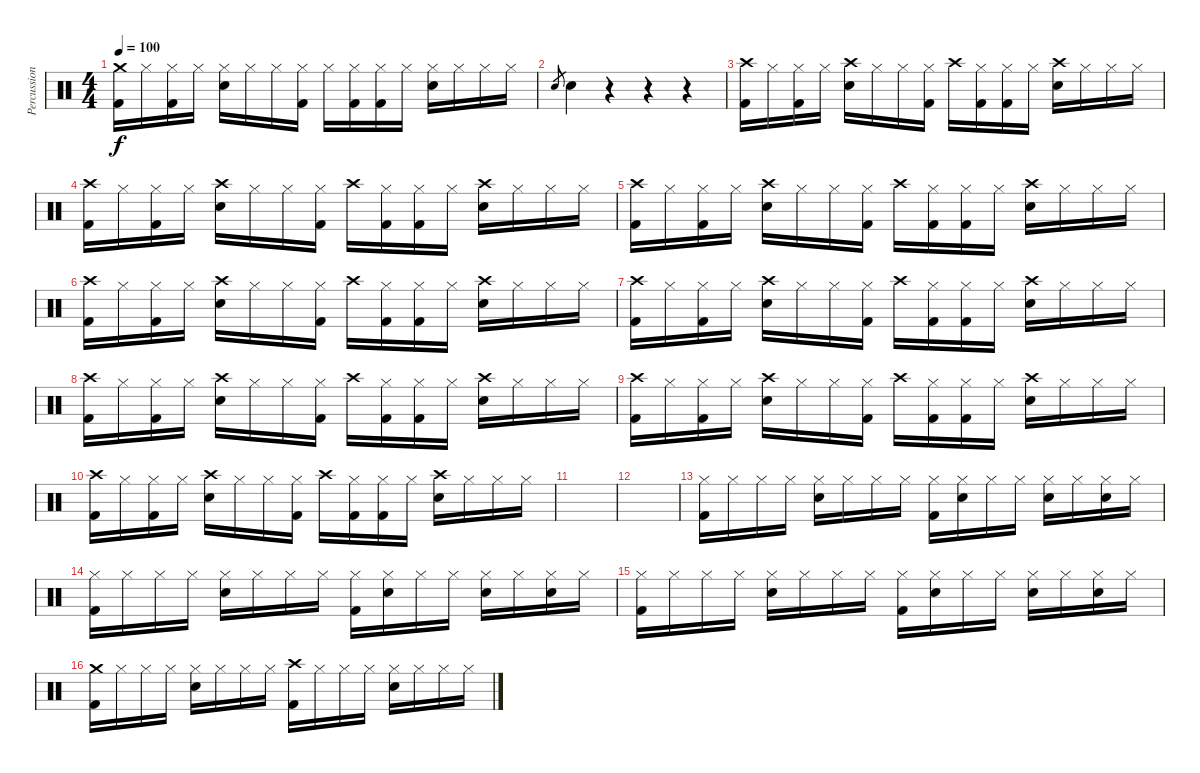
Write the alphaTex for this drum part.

\track ("Percussion" "Percussion") {instrument percussion}
\staff {score}
\articulation defaults
\ts (4 4)
\tempo 100
\clef neutral
\ks c
("Crash medium (hit)" "Kick (hit) 2").16{dy f} "Hi-Hat (closed)".16 ("Hi-Hat (closed)" "Kick (hit) 2").16 "Hi-Hat (closed)".16 ("Hi-Hat (closed)" "Snare (hit) 2").16 "Hi-Hat (closed)".16 "Hi-Hat (closed)".16 ("Hi-Hat (closed)" "Kick (hit) 2").16 "Hi-Hat (closed)".16 ("Hi-Hat (closed)" "Kick (hit) 2").16 ("Hi-Hat (closed)" "Kick (hit) 2").16 "Hi-Hat (closed)".16 ("Hi-Hat (closed)" "Snare (hit) 2").16 "Hi-Hat (closed)".16 "Hi-Hat (closed)".16 "Hi-Hat (closed)".16 |
"Snare (hit) 2".8{gr} "Snare (hit) 2".4 r.4 r.4 r.4 |
("Crash high (hit)" "Kick (hit) 2").16 "Hi-Hat (closed)".16 ("Hi-Hat (closed)" "Kick (hit) 2").16 "Hi-Hat (closed)".16 ("Crash high (hit)" "Snare (hit) 2").16 "Hi-Hat (closed)".16 "Hi-Hat (closed)".16 ("Hi-Hat (closed)" "Kick (hit) 2").16 "Crash high (hit)".16 ("Hi-Hat (closed)" "Kick (hit) 2").16 ("Hi-Hat (closed)" "Kick (hit) 2").16 "Hi-Hat (closed)".16 ("Crash high (hit)" "Snare (hit) 2").16 "Hi-Hat (closed)".16 "Hi-Hat (closed)".16 "Hi-Hat (closed)".16 |
("Crash high (hit)" "Kick (hit) 2").16 "Hi-Hat (closed)".16 ("Hi-Hat (closed)" "Kick (hit) 2").16 "Hi-Hat (closed)".16 ("Crash high (hit)" "Snare (hit) 2").16 "Hi-Hat (closed)".16 "Hi-Hat (closed)".16 ("Hi-Hat (closed)" "Kick (hit) 2").16 "Crash high (hit)".16 ("Hi-Hat (closed)" "Kick (hit) 2").16 ("Hi-Hat (closed)" "Kick (hit) 2").16 "Hi-Hat (closed)".16 ("Crash high (hit)" "Snare (hit) 2").16 "Hi-Hat (closed)".16 "Hi-Hat (closed)".16 "Hi-Hat (closed)".16 |
("Crash high (hit)" "Kick (hit) 2").16 "Hi-Hat (closed)".16 ("Hi-Hat (closed)" "Kick (hit) 2").16 "Hi-Hat (closed)".16 ("Crash high (hit)" "Snare (hit) 2").16 "Hi-Hat (closed)".16 "Hi-Hat (closed)".16 ("Hi-Hat (closed)" "Kick (hit) 2").16 "Crash high (hit)".16 ("Hi-Hat (closed)" "Kick (hit) 2").16 ("Hi-Hat (closed)" "Kick (hit) 2").16 "Hi-Hat (closed)".16 ("Crash high (hit)" "Snare (hit) 2").16 "Hi-Hat (closed)".16 "Hi-Hat (closed)".16 "Hi-Hat (closed)".16 |
("Crash high (hit)" "Kick (hit) 2").16 "Hi-Hat (closed)".16 ("Hi-Hat (closed)" "Kick (hit) 2").16 "Hi-Hat (closed)".16 ("Crash high (hit)" "Snare (hit) 2").16 "Hi-Hat (closed)".16 "Hi-Hat (closed)".16 ("Hi-Hat (closed)" "Kick (hit) 2").16 "Crash high (hit)".16 ("Hi-Hat (closed)" "Kick (hit) 2").16 ("Hi-Hat (closed)" "Kick (hit) 2").16 "Hi-Hat (closed)".16 ("Crash high (hit)" "Snare (hit) 2").16 "Hi-Hat (closed)".16 "Hi-Hat (closed)".16 "Hi-Hat (closed)".16 |
("Crash high (hit)" "Kick (hit) 2").16 "Hi-Hat (closed)".16 ("Hi-Hat (closed)" "Kick (hit) 2").16 "Hi-Hat (closed)".16 ("Crash high (hit)" "Snare (hit) 2").16 "Hi-Hat (closed)".16 "Hi-Hat (closed)".16 ("Hi-Hat (closed)" "Kick (hit) 2").16 "Crash high (hit)".16 ("Hi-Hat (closed)" "Kick (hit) 2").16 ("Hi-Hat (closed)" "Kick (hit) 2").16 "Hi-Hat (closed)".16 ("Crash high (hit)" "Snare (hit) 2").16 "Hi-Hat (closed)".16 "Hi-Hat (closed)".16 "Hi-Hat (closed)".16 |
("Crash high (hit)" "Kick (hit) 2").16 "Hi-Hat (closed)".16 ("Hi-Hat (closed)" "Kick (hit) 2").16 "Hi-Hat (closed)".16 ("Crash high (hit)" "Snare (hit) 2").16 "Hi-Hat (closed)".16 "Hi-Hat (closed)".16 ("Hi-Hat (closed)" "Kick (hit) 2").16 "Crash high (hit)".16 ("Hi-Hat (closed)" "Kick (hit) 2").16 ("Hi-Hat (closed)" "Kick (hit) 2").16 "Hi-Hat (closed)".16 ("Crash high (hit)" "Snare (hit) 2").16 "Hi-Hat (closed)".16 "Hi-Hat (closed)".16 "Hi-Hat (closed)".16 |
("Crash high (hit)" "Kick (hit) 2").16 "Hi-Hat (closed)".16 ("Hi-Hat (closed)" "Kick (hit) 2").16 "Hi-Hat (closed)".16 ("Crash high (hit)" "Snare (hit) 2").16 "Hi-Hat (closed)".16 "Hi-Hat (closed)".16 ("Hi-Hat (closed)" "Kick (hit) 2").16 "Crash high (hit)".16 ("Hi-Hat (closed)" "Kick (hit) 2").16 ("Hi-Hat (closed)" "Kick (hit) 2").16 "Hi-Hat (closed)".16 ("Crash high (hit)" "Snare (hit) 2").16 "Hi-Hat (closed)".16 "Hi-Hat (closed)".16 "Hi-Hat (closed)".16 |
("Crash high (hit)" "Kick (hit) 2").16 "Hi-Hat (closed)".16 ("Hi-Hat (closed)" "Kick (hit) 2").16 "Hi-Hat (closed)".16 ("Crash high (hit)" "Snare (hit) 2").16 "Hi-Hat (closed)".16 "Hi-Hat (closed)".16 ("Hi-Hat (closed)" "Kick (hit) 2").16 "Crash high (hit)".16 ("Hi-Hat (closed)" "Kick (hit) 2").16 ("Hi-Hat (closed)" "Kick (hit) 2").16 "Hi-Hat (closed)".16 ("Crash high (hit)" "Snare (hit) 2").16 "Hi-Hat (closed)".16 "Hi-Hat (closed)".16 "Hi-Hat (closed)".16 |
|
|
("Hi-Hat (closed)" "Kick (hit) 2").16 "Hi-Hat (closed)".16 "Hi-Hat (closed)".16 "Hi-Hat (closed)".16 ("Hi-Hat (closed)" "Snare (hit) 2").16 "Hi-Hat (closed)".16 "Hi-Hat (closed)".16 "Hi-Hat (closed)".16 ("Hi-Hat (closed)" "Kick (hit) 2").16 ("Hi-Hat (closed)" "Snare (hit) 2").16 "Hi-Hat (closed)".16 "Hi-Hat (closed)".16 ("Hi-Hat (closed)" "Snare (hit) 2").16 "Hi-Hat (closed)".16 ("Hi-Hat (closed)" "Snare (hit) 2").16 "Hi-Hat (closed)".16 |
("Hi-Hat (closed)" "Kick (hit) 2").16 "Hi-Hat (closed)".16 "Hi-Hat (closed)".16 "Hi-Hat (closed)".16 ("Hi-Hat (closed)" "Snare (hit) 2").16 "Hi-Hat (closed)".16 "Hi-Hat (closed)".16 "Hi-Hat (closed)".16 ("Hi-Hat (closed)" "Kick (hit) 2").16 ("Hi-Hat (closed)" "Snare (hit) 2").16 "Hi-Hat (closed)".16 "Hi-Hat (closed)".16 ("Hi-Hat (closed)" "Snare (hit) 2").16 "Hi-Hat (closed)".16 ("Hi-Hat (closed)" "Snare (hit) 2").16 "Hi-Hat (closed)".16 |
("Hi-Hat (closed)" "Kick (hit) 2").16 "Hi-Hat (closed)".16 "Hi-Hat (closed)".16 "Hi-Hat (closed)".16 ("Hi-Hat (closed)" "Snare (hit) 2").16 "Hi-Hat (closed)".16 "Hi-Hat (closed)".16 "Hi-Hat (closed)".16 ("Hi-Hat (closed)" "Kick (hit) 2").16 ("Hi-Hat (closed)" "Snare (hit) 2").16 "Hi-Hat (closed)".16 "Hi-Hat (closed)".16 ("Hi-Hat (closed)" "Snare (hit) 2").16 "Hi-Hat (closed)".16 ("Hi-Hat (closed)" "Snare (hit) 2").16 "Hi-Hat (closed)".16 |
("Crash medium (hit)" "Kick (hit) 2").16 "Hi-Hat (closed)".16 "Hi-Hat (closed)".16 "Hi-Hat (closed)".16 ("Hi-Hat (closed)" "Snare (hit) 2").16 "Hi-Hat (closed)".16 "Hi-Hat (closed)".16 "Hi-Hat (closed)".16 ("Crash high (hit)" "Kick (hit) 2").16 "Hi-Hat (closed)".16 "Hi-Hat (closed)".16 "Hi-Hat (closed)".16 ("Hi-Hat (closed)" "Snare (hit) 2").16 "Hi-Hat (closed)".16 "Hi-Hat (closed)".16 "Hi-Hat (closed)".16
